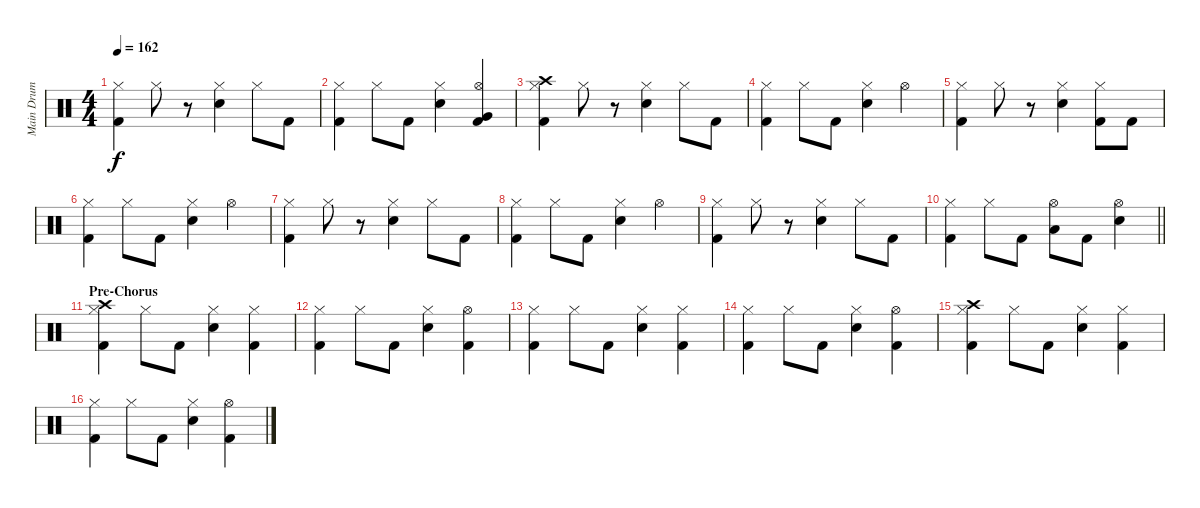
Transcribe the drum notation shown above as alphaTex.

\track ("Main Drum Track" "Main Drum ") {instrument percussion}
\staff {score}
\articulation defaults
\ts (4 4)
\tempo 162
\clef neutral
\ks c
("Hi-Hat (closed)" "Kick (hit) 2").4{dy f} "Hi-Hat (closed)".8 r.8 ("Hi-Hat (closed)" "Electric Snare (hit)").4 "Hi-Hat (closed)".8 "Kick (hit) 2".8 |
("Hi-Hat (closed)" "Kick (hit) 2").4 "Hi-Hat (closed)".8 "Kick (hit) 2".8 ("Hi-Hat (closed)" "Electric Snare (hit)").4 ("Hi-Hat (open)" "Very Low Tom (hit)" "Kick (hit) 2").4 |
("Crash high (hit)" "Hi-Hat (closed)" "Kick (hit) 2").4 "Hi-Hat (closed)".8 r.8 ("Hi-Hat (closed)" "Electric Snare (hit)").4 "Hi-Hat (closed)".8 "Kick (hit) 2".8 |
("Hi-Hat (closed)" "Kick (hit) 2").4 "Hi-Hat (closed)".8 "Kick (hit) 2".8 ("Hi-Hat (closed)" "Electric Snare (hit)").4 "Hi-Hat (open)".4 |
("Hi-Hat (closed)" "Kick (hit) 2").4 "Hi-Hat (closed)".8 r.8 ("Hi-Hat (closed)" "Electric Snare (hit)").4 ("Hi-Hat (closed)" "Kick (hit) 2").8 "Kick (hit) 2".8 |
("Hi-Hat (closed)" "Kick (hit) 2").4 "Hi-Hat (closed)".8 "Kick (hit) 2".8 ("Hi-Hat (closed)" "Electric Snare (hit)").4 "Hi-Hat (open)".4 |
("Hi-Hat (closed)" "Kick (hit) 2").4 "Hi-Hat (closed)".8 r.8 ("Hi-Hat (closed)" "Electric Snare (hit)").4 "Hi-Hat (closed)".8 "Kick (hit) 2".8 |
("Hi-Hat (closed)" "Kick (hit) 2").4 "Hi-Hat (closed)".8 "Kick (hit) 2".8 ("Hi-Hat (closed)" "Electric Snare (hit)").4 "Hi-Hat (open)".4 |
("Hi-Hat (closed)" "Kick (hit) 2").4 "Hi-Hat (closed)".8 r.8 ("Hi-Hat (closed)" "Electric Snare (hit)").4 "Hi-Hat (closed)".8 "Kick (hit) 2".8 |
\barLineRight lightlight
("Hi-Hat (closed)" "Kick (hit) 2").4 "Hi-Hat (closed)".8 "Kick (hit) 2".8 ("Hi-Hat (open)" "Low Floor Tom (hit)").8 "Kick (hit) 2".8 ("Hi-Hat (open)" "Electric Snare (hit)").4 |
\section ("" "Pre-Chorus")
("Crash high (hit)" "Hi-Hat (closed)" "Kick (hit) 2").4 "Hi-Hat (closed)".8 "Kick (hit) 2".8 ("Hi-Hat (closed)" "Electric Snare (hit)").4 ("Hi-Hat (closed)" "Kick (hit) 2").4 |
("Hi-Hat (closed)" "Kick (hit) 2").4 "Hi-Hat (closed)".8 "Kick (hit) 2".8 ("Hi-Hat (closed)" "Electric Snare (hit)").4 ("Hi-Hat (open)" "Kick (hit) 2").4 |
("Hi-Hat (closed)" "Kick (hit) 2").4 "Hi-Hat (closed)".8 "Kick (hit) 2".8 ("Hi-Hat (closed)" "Electric Snare (hit)").4 ("Hi-Hat (closed)" "Kick (hit) 2").4 |
("Hi-Hat (closed)" "Kick (hit) 2").4 "Hi-Hat (closed)".8 "Kick (hit) 2".8 ("Hi-Hat (closed)" "Electric Snare (hit)").4 ("Hi-Hat (open)" "Kick (hit) 2").4 |
("Crash high (hit)" "Hi-Hat (closed)" "Kick (hit) 2").4 "Hi-Hat (closed)".8 "Kick (hit) 2".8 ("Hi-Hat (closed)" "Electric Snare (hit)").4 ("Hi-Hat (closed)" "Kick (hit) 2").4 |
("Hi-Hat (closed)" "Kick (hit) 2").4 "Hi-Hat (closed)".8 "Kick (hit) 2".8 ("Hi-Hat (closed)" "Electric Snare (hit)").4 ("Hi-Hat (open)" "Kick (hit) 2").4
